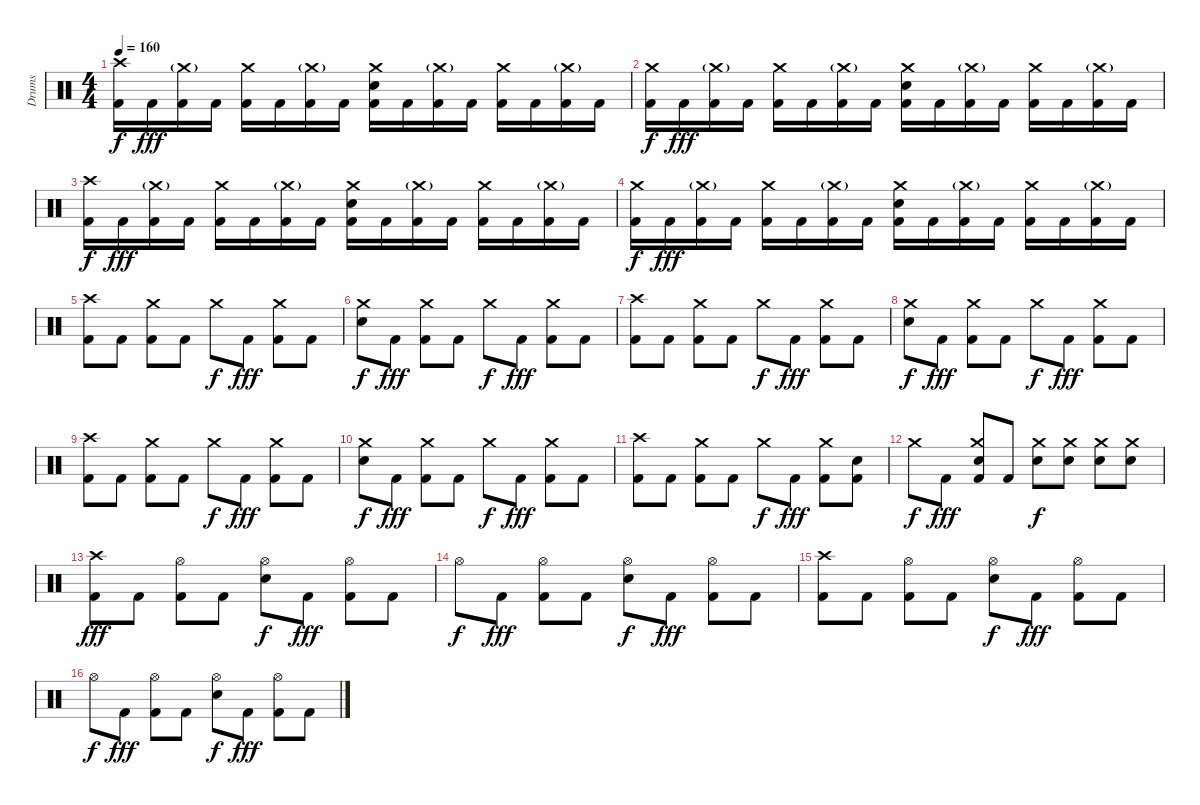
\track ("Drums" "Drums") {instrument percussion}
\staff {score}
\articulation defaults
\ts (4 4)
\tempo 160
\clef neutral
\ks c
("Crash high (hit)" "Kick (hit) 2").16{dy f} "Kick (hit) 2".16{dy fff} ("Crash medium (hit)"{g} "Kick (hit) 2").16 "Kick (hit) 2".16 ("Crash medium (hit)" "Kick (hit) 2").16 "Kick (hit) 2".16 ("Crash medium (hit)"{g} "Kick (hit) 2").16 "Kick (hit) 2".16 ("Crash medium (hit)" "Snare (hit) 2" "Kick (hit) 2").16 "Kick (hit) 2".16 ("Crash medium (hit)"{g} "Kick (hit) 2").16 "Kick (hit) 2".16 ("Crash medium (hit)" "Kick (hit) 2").16 "Kick (hit) 2".16 ("Crash medium (hit)"{g} "Kick (hit) 2").16 "Kick (hit) 2".16 |
("Crash medium (hit)" "Kick (hit) 2").16{dy f} "Kick (hit) 2".16{dy fff} ("Crash medium (hit)"{g} "Kick (hit) 2").16 "Kick (hit) 2".16 ("Crash medium (hit)" "Kick (hit) 2").16 "Kick (hit) 2".16 ("Crash medium (hit)"{g} "Kick (hit) 2").16 "Kick (hit) 2".16 ("Crash medium (hit)" "Snare (hit) 2" "Kick (hit) 2").16 "Kick (hit) 2".16 ("Crash medium (hit)"{g} "Kick (hit) 2").16 "Kick (hit) 2".16 ("Crash medium (hit)" "Kick (hit) 2").16 "Kick (hit) 2".16 ("Crash medium (hit)"{g} "Kick (hit) 2").16 "Kick (hit) 2".16 |
("Crash high (hit)" "Kick (hit) 2").16{dy f} "Kick (hit) 2".16{dy fff} ("Crash medium (hit)"{g} "Kick (hit) 2").16 "Kick (hit) 2".16 ("Crash medium (hit)" "Kick (hit) 2").16 "Kick (hit) 2".16 ("Crash medium (hit)"{g} "Kick (hit) 2").16 "Kick (hit) 2".16 ("Crash medium (hit)" "Snare (hit) 2" "Kick (hit) 2").16 "Kick (hit) 2".16 ("Crash medium (hit)"{g} "Kick (hit) 2").16 "Kick (hit) 2".16 ("Crash medium (hit)" "Kick (hit) 2").16 "Kick (hit) 2".16 ("Crash medium (hit)"{g} "Kick (hit) 2").16 "Kick (hit) 2".16 |
("Crash medium (hit)" "Kick (hit) 2").16{dy f} "Kick (hit) 2".16{dy fff} ("Crash medium (hit)"{g} "Kick (hit) 2").16 "Kick (hit) 2".16 ("Crash medium (hit)" "Kick (hit) 2").16 "Kick (hit) 2".16 ("Crash medium (hit)"{g} "Kick (hit) 2").16 "Kick (hit) 2".16 ("Crash medium (hit)" "Snare (hit) 2" "Kick (hit) 2").16 "Kick (hit) 2".16 ("Crash medium (hit)"{g} "Kick (hit) 2").16 "Kick (hit) 2".16 ("Crash medium (hit)" "Kick (hit) 2").16 "Kick (hit) 2".16 ("Crash medium (hit)"{g} "Kick (hit) 2").16 "Kick (hit) 2".16 |
("Crash high (hit)" "Kick (hit) 2").8 "Kick (hit) 2".8 ("Crash medium (hit)" "Kick (hit) 2").8 "Kick (hit) 2".8 "Crash medium (hit)".8{dy f} "Kick (hit) 2".8{dy fff} ("Crash medium (hit)" "Kick (hit) 2").8 "Kick (hit) 2".8 |
("Crash medium (hit)" "Snare (hit) 2").8{dy f} "Kick (hit) 2".8{dy fff} ("Crash medium (hit)" "Kick (hit) 2").8 "Kick (hit) 2".8 "Crash medium (hit)".8{dy f} "Kick (hit) 2".8{dy fff} ("Crash medium (hit)" "Kick (hit) 2").8 "Kick (hit) 2".8 |
("Crash high (hit)" "Kick (hit) 2").8 "Kick (hit) 2".8 ("Crash medium (hit)" "Kick (hit) 2").8 "Kick (hit) 2".8 "Crash medium (hit)".8{dy f} "Kick (hit) 2".8{dy fff} ("Crash medium (hit)" "Kick (hit) 2").8 "Kick (hit) 2".8 |
("Crash medium (hit)" "Snare (hit) 2").8{dy f} "Kick (hit) 2".8{dy fff} ("Crash medium (hit)" "Kick (hit) 2").8 "Kick (hit) 2".8 "Crash medium (hit)".8{dy f} "Kick (hit) 2".8{dy fff} ("Crash medium (hit)" "Kick (hit) 2").8 "Kick (hit) 2".8 |
("Crash high (hit)" "Kick (hit) 2").8 "Kick (hit) 2".8 ("Crash medium (hit)" "Kick (hit) 2").8 "Kick (hit) 2".8 "Crash medium (hit)".8{dy f} "Kick (hit) 2".8{dy fff} ("Crash medium (hit)" "Kick (hit) 2").8 "Kick (hit) 2".8 |
("Crash medium (hit)" "Snare (hit) 2").8{dy f} "Kick (hit) 2".8{dy fff} ("Crash medium (hit)" "Kick (hit) 2").8 "Kick (hit) 2".8 "Crash medium (hit)".8{dy f} "Kick (hit) 2".8{dy fff} ("Crash medium (hit)" "Kick (hit) 2").8 "Kick (hit) 2".8 |
("Crash high (hit)" "Kick (hit) 2").8 "Kick (hit) 2".8 ("Crash medium (hit)" "Kick (hit) 2").8 "Kick (hit) 2".8 "Crash medium (hit)".8{dy f} "Kick (hit) 2".8{dy fff} ("Crash medium (hit)" "Kick (hit) 2").8 ("Snare (hit) 2" "Kick (hit) 2").8 |
"Crash medium (hit)".8{dy f} "Kick (hit) 2".8{dy fff} ("Crash medium (hit)" "Snare (hit) 2" "Kick (hit) 2").8 "Kick (hit) 2".8 ("Crash medium (hit)" "Snare (hit) 2").8{dy f} ("Crash medium (hit)" "Snare (hit) 2").8 ("Crash medium (hit)" "Snare (hit) 2").8 ("Crash medium (hit)" "Snare (hit) 2").8 |
("Crash high (hit)" "Kick (hit) 2").8{dy fff} "Kick (hit) 2".8 ("Hi-Hat (open)" "Kick (hit) 2").8 "Kick (hit) 2".8 ("Hi-Hat (open)" "Snare (hit) 2").8{dy f} "Kick (hit) 2".8{dy fff} ("Hi-Hat (open)" "Kick (hit) 2").8 "Kick (hit) 2".8 |
"Hi-Hat (open)".8{dy f} "Kick (hit) 2".8{dy fff} ("Hi-Hat (open)" "Kick (hit) 2").8 "Kick (hit) 2".8 ("Hi-Hat (open)" "Snare (hit) 2").8{dy f} "Kick (hit) 2".8{dy fff} ("Hi-Hat (open)" "Kick (hit) 2").8 "Kick (hit) 2".8 |
("Crash high (hit)" "Kick (hit) 2").8 "Kick (hit) 2".8 ("Hi-Hat (open)" "Kick (hit) 2").8 "Kick (hit) 2".8 ("Hi-Hat (open)" "Snare (hit) 2").8{dy f} "Kick (hit) 2".8{dy fff} ("Hi-Hat (open)" "Kick (hit) 2").8 "Kick (hit) 2".8 |
"Hi-Hat (open)".8{dy f} "Kick (hit) 2".8{dy fff} ("Hi-Hat (open)" "Kick (hit) 2").8 "Kick (hit) 2".8 ("Hi-Hat (open)" "Snare (hit) 2").8{dy f} "Kick (hit) 2".8{dy fff} ("Hi-Hat (open)" "Kick (hit) 2").8 "Kick (hit) 2".8
